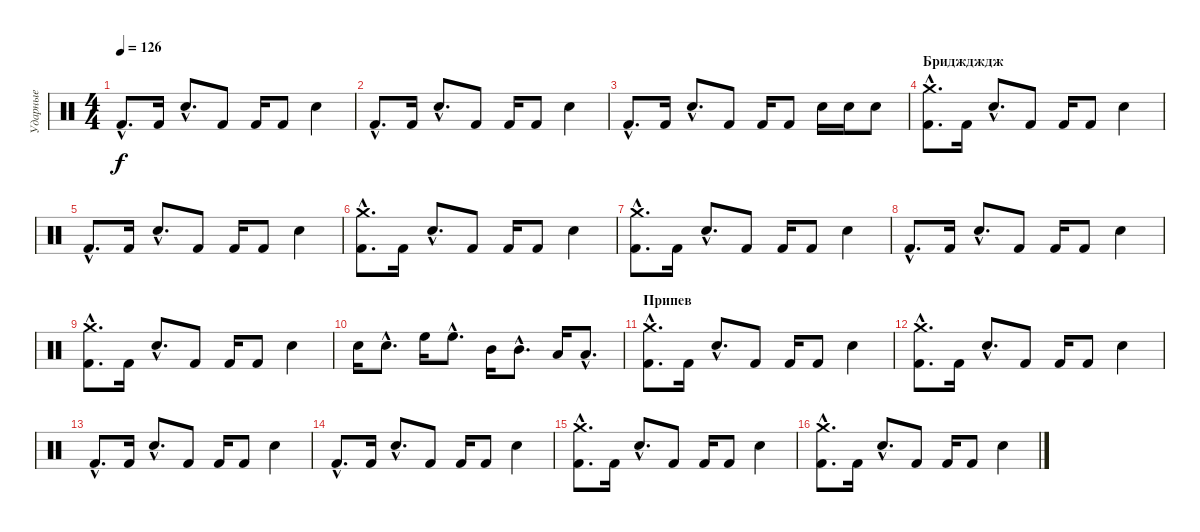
\track ("Ударные" "Ударные") {instrument percussion}
\staff {score}
\articulation defaults
\ts (4 4)
\tempo 126
\clef neutral
\ks c "Kick (hit) 2"{hac}.8{d dy f} "Kick (hit) 2".16 "Snare (hit) 2"{hac}.8{d} "Kick (hit) 2".8 "Kick (hit) 2".16 "Kick (hit) 2".8 "Snare (hit) 2".4
|
"Kick (hit) 2"{hac}.8{d} "Kick (hit) 2".16 "Snare (hit) 2"{hac}.8{d} "Kick (hit) 2".8 "Kick (hit) 2".16 "Kick (hit) 2".8 "Snare (hit) 2".4 |
"Kick (hit) 2"{hac}.8{d} "Kick (hit) 2".16 "Snare (hit) 2"{hac}.8{d} "Kick (hit) 2".8 "Kick (hit) 2".16 "Kick (hit) 2".8 "Snare (hit) 2".16 "Snare (hit) 2".16 "Snare (hit) 2".8 |
\section ("" "Бридждждж")
("Kick (hit) 2"{hac} "Crash medium (hit)"{hac}).8{d} "Kick (hit) 2".16 "Snare (hit) 2"{hac}.8{d} "Kick (hit) 2".8 "Kick (hit) 2".16 "Kick (hit) 2".8 "Snare (hit) 2".4 |
"Kick (hit) 2"{hac}.8{d} "Kick (hit) 2".16 "Snare (hit) 2"{hac}.8{d} "Kick (hit) 2".8 "Kick (hit) 2".16 "Kick (hit) 2".8 "Snare (hit) 2".4 |
("Kick (hit) 2"{hac} "Crash medium (hit)"{hac}).8{d} "Kick (hit) 2".16 "Snare (hit) 2"{hac}.8{d} "Kick (hit) 2".8 "Kick (hit) 2".16 "Kick (hit) 2".8 "Snare (hit) 2".4 |
("Kick (hit) 2"{hac} "Crash medium (hit)"{hac}).8{d} "Kick (hit) 2".16 "Snare (hit) 2"{hac}.8{d} "Kick (hit) 2".8 "Kick (hit) 2".16 "Kick (hit) 2".8 "Snare (hit) 2".4 |
"Kick (hit) 2"{hac}.8{d} "Kick (hit) 2".16 "Snare (hit) 2"{hac}.8{d} "Kick (hit) 2".8 "Kick (hit) 2".16 "Kick (hit) 2".8 "Snare (hit) 2".4 |
("Kick (hit) 2"{hac} "Crash medium (hit)"{hac}).8{d} "Kick (hit) 2".16 "Snare (hit) 2"{hac}.8{d} "Kick (hit) 2".8 "Kick (hit) 2".16 "Kick (hit) 2".8 "Snare (hit) 2".4 |
"Snare (hit) 2".16 "Snare (hit) 2"{hac}.8{d} "High Floor Tom (hit)".16 "High Floor Tom (hit)"{hac}.8{d} "Mid Tom (hit)".16 "Mid Tom (hit)"{hac}.8{d} "Low Floor Tom (hit)".16 "Low Floor Tom (hit)"{hac}.8{d} |
\section ("" "Припев")
("Kick (hit) 2"{hac} "Crash medium (hit)"{hac}).8{d} "Kick (hit) 2".16 "Snare (hit) 2"{hac}.8{d} "Kick (hit) 2".8 "Kick (hit) 2".16 "Kick (hit) 2".8 "Snare (hit) 2".4 |
("Kick (hit) 2"{hac} "Crash medium (hit)"{hac}).8{d} "Kick (hit) 2".16 "Snare (hit) 2"{hac}.8{d} "Kick (hit) 2".8 "Kick (hit) 2".16 "Kick (hit) 2".8 "Snare (hit) 2".4 |
"Kick (hit) 2"{hac}.8{d} "Kick (hit) 2".16 "Snare (hit) 2"{hac}.8{d} "Kick (hit) 2".8 "Kick (hit) 2".16 "Kick (hit) 2".8 "Snare (hit) 2".4 |
"Kick (hit) 2"{hac}.8{d} "Kick (hit) 2".16 "Snare (hit) 2"{hac}.8{d} "Kick (hit) 2".8 "Kick (hit) 2".16 "Kick (hit) 2".8 "Snare (hit) 2".4 |
("Kick (hit) 2"{hac} "Crash medium (hit)"{hac}).8{d} "Kick (hit) 2".16 "Snare (hit) 2"{hac}.8{d} "Kick (hit) 2".8 "Kick (hit) 2".16 "Kick (hit) 2".8 "Snare (hit) 2".4 |
("Kick (hit) 2"{hac} "Crash medium (hit)"{hac}).8{d} "Kick (hit) 2".16 "Snare (hit) 2"{hac}.8{d} "Kick (hit) 2".8 "Kick (hit) 2".16 "Kick (hit) 2".8 "Snare (hit) 2".4
